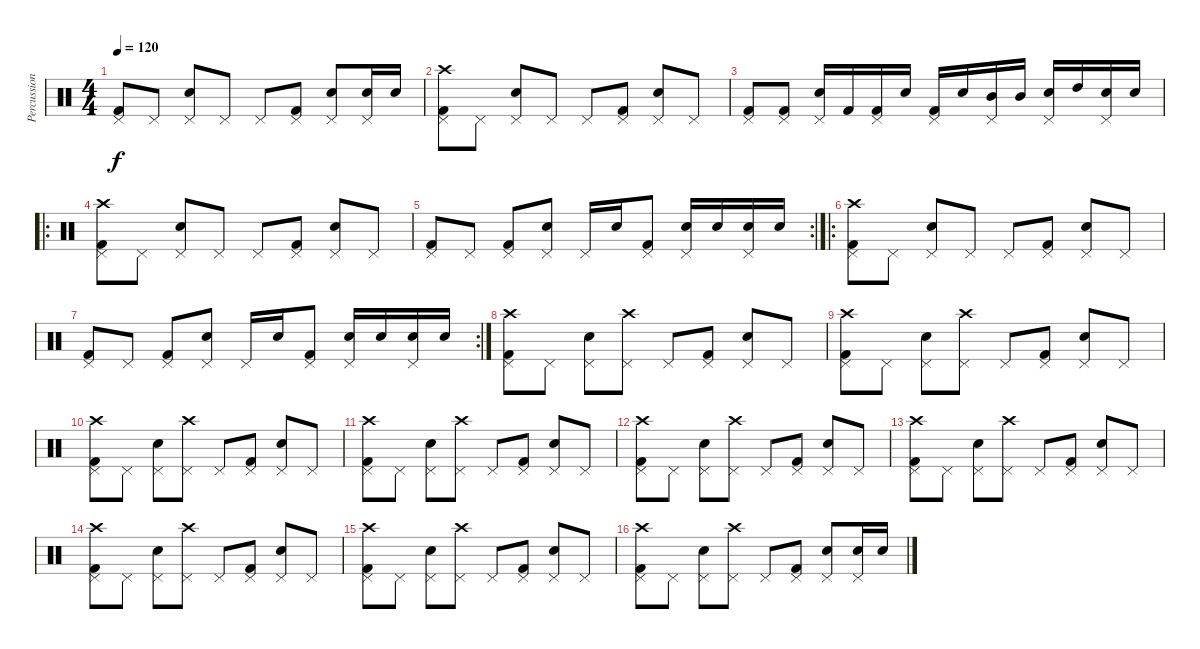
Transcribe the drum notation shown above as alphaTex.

\track ("Percussion" "Percussion") {instrument percussion}
\staff {score}
\articulation defaults
\ts (4 4)
\tempo 120
\clef neutral
\ks c
("Pedal Hi-Hat (hit)" "Kick (hit) 2").8{dy f} "Pedal Hi-Hat (hit)".8 ("Pedal Hi-Hat (hit)" "Electric Snare (hit)").8 "Pedal Hi-Hat (hit)".8 "Pedal Hi-Hat (hit)".8 ("Pedal Hi-Hat (hit)" "Kick (hit) 2").8 ("Pedal Hi-Hat (hit)" "Electric Snare (hit)").8 ("Electric Snare (hit)" "Pedal Hi-Hat (hit)").16 "Electric Snare (hit)".16 |
("Crash high (hit)" "Pedal Hi-Hat (hit)" "Kick (hit) 2").8 "Pedal Hi-Hat (hit)".8 ("Pedal Hi-Hat (hit)" "Electric Snare (hit)").8 "Pedal Hi-Hat (hit)".8 "Pedal Hi-Hat (hit)".8 ("Pedal Hi-Hat (hit)" "Kick (hit) 2").8 ("Pedal Hi-Hat (hit)" "Electric Snare (hit)").8 "Pedal Hi-Hat (hit)".8 |
("Pedal Hi-Hat (hit)" "Kick (hit) 2").8 ("Pedal Hi-Hat (hit)" "Kick (hit) 2").8 ("Pedal Hi-Hat (hit)" "Electric Snare (hit)").16 "Kick (hit) 2".16 ("Pedal Hi-Hat (hit)" "Kick (hit) 2").16 "Electric Snare (hit)".16 ("Pedal Hi-Hat (hit)" "Kick (hit) 2").16 "Electric Snare (hit)".16 ("Pedal Hi-Hat (hit)" "Mid Tom (hit)").16 "Mid Tom (hit)".16 ("Pedal Hi-Hat (hit)" "Electric Snare (hit)").16 "High Tom (hit)".16 ("Pedal Hi-Hat (hit)" "Electric Snare (hit)").16 "Electric Snare (hit)".16 |
\ro
("Crash high (hit)" "Pedal Hi-Hat (hit)" "Kick (hit) 2").8 "Pedal Hi-Hat (hit)".8 ("Pedal Hi-Hat (hit)" "Electric Snare (hit)").8 "Pedal Hi-Hat (hit)".8 "Pedal Hi-Hat (hit)".8 ("Pedal Hi-Hat (hit)" "Kick (hit) 2").8 ("Pedal Hi-Hat (hit)" "Electric Snare (hit)").8 "Pedal Hi-Hat (hit)".8 |
\rc 2
("Pedal Hi-Hat (hit)" "Kick (hit) 2").8 "Pedal Hi-Hat (hit)".8 ("Pedal Hi-Hat (hit)" "Kick (hit) 2").8 ("Pedal Hi-Hat (hit)" "Electric Snare (hit)").8 "Pedal Hi-Hat (hit)".16 "Electric Snare (hit)".16 ("Pedal Hi-Hat (hit)" "Kick (hit) 2").8 ("Pedal Hi-Hat (hit)" "Electric Snare (hit)").16 "Electric Snare (hit)".16 ("Pedal Hi-Hat (hit)" "Electric Snare (hit)").16 "Electric Snare (hit)".16 |
\ro
("Crash high (hit)" "Pedal Hi-Hat (hit)" "Kick (hit) 2").8 "Pedal Hi-Hat (hit)".8 ("Pedal Hi-Hat (hit)" "Electric Snare (hit)").8 "Pedal Hi-Hat (hit)".8 "Pedal Hi-Hat (hit)".8 ("Pedal Hi-Hat (hit)" "Kick (hit) 2").8 ("Pedal Hi-Hat (hit)" "Electric Snare (hit)").8 "Pedal Hi-Hat (hit)".8 |
\rc 2
("Pedal Hi-Hat (hit)" "Kick (hit) 2").8 "Pedal Hi-Hat (hit)".8 ("Pedal Hi-Hat (hit)" "Kick (hit) 2").8 ("Pedal Hi-Hat (hit)" "Electric Snare (hit)").8 "Pedal Hi-Hat (hit)".16 "Electric Snare (hit)".16 ("Pedal Hi-Hat (hit)" "Kick (hit) 2").8 ("Pedal Hi-Hat (hit)" "Electric Snare (hit)").16 "Electric Snare (hit)".16 ("Pedal Hi-Hat (hit)" "Electric Snare (hit)").16 "Electric Snare (hit)".16 |
("Crash high (hit)" "Pedal Hi-Hat (hit)" "Kick (hit) 2").8 "Pedal Hi-Hat (hit)".8 ("Pedal Hi-Hat (hit)" "Electric Snare (hit)").8 ("Crash high (hit)" "Pedal Hi-Hat (hit)").8 "Pedal Hi-Hat (hit)".8 ("Pedal Hi-Hat (hit)" "Kick (hit) 2").8 ("Pedal Hi-Hat (hit)" "Electric Snare (hit)").8 "Pedal Hi-Hat (hit)".8 |
("Crash high (hit)" "Pedal Hi-Hat (hit)" "Kick (hit) 2").8 "Pedal Hi-Hat (hit)".8 ("Pedal Hi-Hat (hit)" "Electric Snare (hit)").8 ("Crash high (hit)" "Pedal Hi-Hat (hit)").8 "Pedal Hi-Hat (hit)".8 ("Pedal Hi-Hat (hit)" "Kick (hit) 2").8 ("Pedal Hi-Hat (hit)" "Electric Snare (hit)").8 "Pedal Hi-Hat (hit)".8 |
("Crash high (hit)" "Pedal Hi-Hat (hit)" "Kick (hit) 2").8 "Pedal Hi-Hat (hit)".8 ("Pedal Hi-Hat (hit)" "Electric Snare (hit)").8 ("Crash high (hit)" "Pedal Hi-Hat (hit)").8 "Pedal Hi-Hat (hit)".8 ("Pedal Hi-Hat (hit)" "Kick (hit) 2").8 ("Pedal Hi-Hat (hit)" "Electric Snare (hit)").8 "Pedal Hi-Hat (hit)".8 |
("Crash high (hit)" "Pedal Hi-Hat (hit)" "Kick (hit) 2").8 "Pedal Hi-Hat (hit)".8 ("Pedal Hi-Hat (hit)" "Electric Snare (hit)").8 ("Crash high (hit)" "Pedal Hi-Hat (hit)").8 "Pedal Hi-Hat (hit)".8 ("Pedal Hi-Hat (hit)" "Kick (hit) 2").8 ("Pedal Hi-Hat (hit)" "Electric Snare (hit)").8 "Pedal Hi-Hat (hit)".8 |
("Crash high (hit)" "Pedal Hi-Hat (hit)" "Kick (hit) 2").8 "Pedal Hi-Hat (hit)".8 ("Pedal Hi-Hat (hit)" "Electric Snare (hit)").8 ("Crash high (hit)" "Pedal Hi-Hat (hit)").8 "Pedal Hi-Hat (hit)".8 ("Pedal Hi-Hat (hit)" "Kick (hit) 2").8 ("Pedal Hi-Hat (hit)" "Electric Snare (hit)").8 "Pedal Hi-Hat (hit)".8 |
("Crash high (hit)" "Pedal Hi-Hat (hit)" "Kick (hit) 2").8 "Pedal Hi-Hat (hit)".8 ("Pedal Hi-Hat (hit)" "Electric Snare (hit)").8 ("Crash high (hit)" "Pedal Hi-Hat (hit)").8 "Pedal Hi-Hat (hit)".8 ("Pedal Hi-Hat (hit)" "Kick (hit) 2").8 ("Pedal Hi-Hat (hit)" "Electric Snare (hit)").8 "Pedal Hi-Hat (hit)".8 |
("Crash high (hit)" "Pedal Hi-Hat (hit)" "Kick (hit) 2").8 "Pedal Hi-Hat (hit)".8 ("Pedal Hi-Hat (hit)" "Electric Snare (hit)").8 ("Crash high (hit)" "Pedal Hi-Hat (hit)").8 "Pedal Hi-Hat (hit)".8 ("Pedal Hi-Hat (hit)" "Kick (hit) 2").8 ("Pedal Hi-Hat (hit)" "Electric Snare (hit)").8 "Pedal Hi-Hat (hit)".8 |
("Crash high (hit)" "Pedal Hi-Hat (hit)" "Kick (hit) 2").8 "Pedal Hi-Hat (hit)".8 ("Pedal Hi-Hat (hit)" "Electric Snare (hit)").8 ("Crash high (hit)" "Pedal Hi-Hat (hit)").8 "Pedal Hi-Hat (hit)".8 ("Pedal Hi-Hat (hit)" "Kick (hit) 2").8 ("Pedal Hi-Hat (hit)" "Electric Snare (hit)").8 "Pedal Hi-Hat (hit)".8 |
("Crash high (hit)" "Pedal Hi-Hat (hit)" "Kick (hit) 2").8 "Pedal Hi-Hat (hit)".8 ("Pedal Hi-Hat (hit)" "Electric Snare (hit)").8 ("Crash high (hit)" "Pedal Hi-Hat (hit)").8 "Pedal Hi-Hat (hit)".8 ("Pedal Hi-Hat (hit)" "Kick (hit) 2").8 ("Pedal Hi-Hat (hit)" "Electric Snare (hit)").8 ("Electric Snare (hit)" "Pedal Hi-Hat (hit)").16 "Electric Snare (hit)".16
